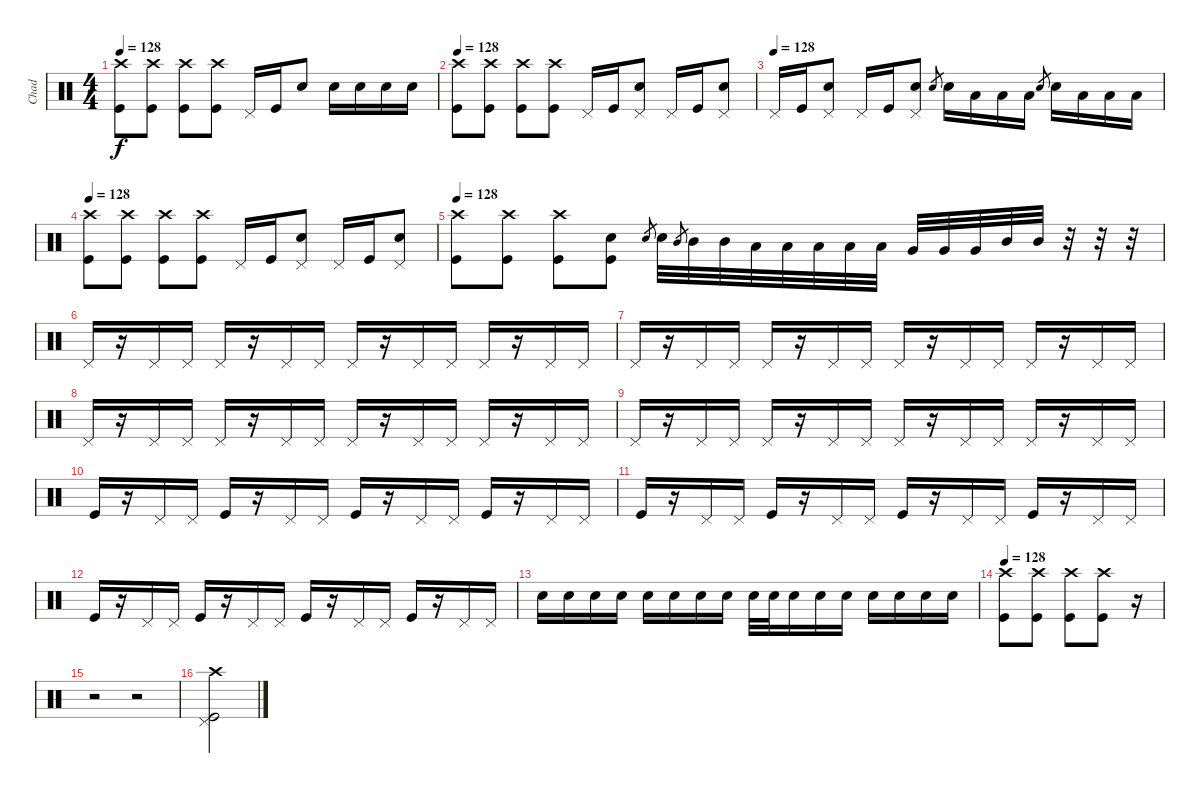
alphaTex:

\track ("Chad" "Chad") {instrument percussion}
\staff {score}
\articulation defaults
\ts (4 4)
\tempo 128
\clef neutral
\ks c
("Crash high (hit)" "Kick (hit)").8{dy f} ("Crash high (hit)" "Kick (hit)").8 ("Crash high (hit)" "Kick (hit)").8 ("Crash high (hit)" "Kick (hit)").8 "Pedal Hi-Hat (hit)".16 "Kick (hit)".16 "Electric Snare (hit)".8 "Electric Snare (hit)".16 "Electric Snare (hit)".16 "Electric Snare (hit)".16 "Electric Snare (hit)".16 |
\tempo 128
("Crash high (hit)" "Kick (hit)").8 ("Crash high (hit)" "Kick (hit)").8 ("Crash high (hit)" "Kick (hit)").8 ("Crash high (hit)" "Kick (hit)").8 "Pedal Hi-Hat (hit)".16 "Kick (hit)".16 ("Electric Snare (hit)" "Pedal Hi-Hat (hit)").8 "Pedal Hi-Hat (hit)".16 "Kick (hit)".16 ("Electric Snare (hit)" "Pedal Hi-Hat (hit)").8 |
\tempo (128)
"Pedal Hi-Hat (hit)".16 "Kick (hit)".16 ("Electric Snare (hit)" "Pedal Hi-Hat (hit)").8 "Pedal Hi-Hat (hit)".16 "Kick (hit)".16 ("Electric Snare (hit)" "Pedal Hi-Hat (hit)").8 "Electric Snare (hit)".8{gr} "Electric Snare (hit)".16 "Low Tom (hit)".16 "Low Tom (hit)".16 "Low Tom (hit)".16 "Electric Snare (hit)".8{gr} "Electric Snare (hit)".16 "Low Tom (hit)".16 "Low Tom (hit)".16 "Low Tom (hit)".16 |
\tempo 128
("Crash high (hit)" "Kick (hit)").8 ("Crash high (hit)" "Kick (hit)").8 ("Crash high (hit)" "Kick (hit)").8 ("Crash high (hit)" "Kick (hit)").8 "Pedal Hi-Hat (hit)".16 "Kick (hit)".16 ("Electric Snare (hit)" "Pedal Hi-Hat (hit)").8 "Pedal Hi-Hat (hit)".16 "Kick (hit)".16 ("Electric Snare (hit)" "Pedal Hi-Hat (hit)").8 |
\tempo 128
("Crash high (hit)" "Kick (hit)").8 ("Crash high (hit)" "Kick (hit)").8 ("Crash high (hit)" "Kick (hit)").8 ("Electric Snare (hit)" "Kick (hit)").8 "Electric Snare (hit)".8{gr} "Electric Snare (hit)".32 "Mid Tom (hit)".8{gr} "Mid Tom (hit)".32 "Mid Tom (hit)".32 "Low Tom (hit)".32 "Low Tom (hit)".32 "Low Tom (hit)".32 "Low Tom (hit)".32 "Low Tom (hit)".32 "Very Low Tom (hit)".32 "Very Low Tom (hit)".32 "Very Low Tom (hit)".32 "Mid Tom (hit)".32 "Mid Tom (hit)".32 r.32 r.32 r.32 |
"Pedal Hi-Hat (hit)".16 r.16 "Pedal Hi-Hat (hit)".16 "Pedal Hi-Hat (hit)".16 "Pedal Hi-Hat (hit)".16 r.16 "Pedal Hi-Hat (hit)".16 "Pedal Hi-Hat (hit)".16 "Pedal Hi-Hat (hit)".16 r.16 "Pedal Hi-Hat (hit)".16 "Pedal Hi-Hat (hit)".16 "Pedal Hi-Hat (hit)".16 r.16 "Pedal Hi-Hat (hit)".16 "Pedal Hi-Hat (hit)".16 |
"Pedal Hi-Hat (hit)".16 r.16 "Pedal Hi-Hat (hit)".16 "Pedal Hi-Hat (hit)".16 "Pedal Hi-Hat (hit)".16 r.16 "Pedal Hi-Hat (hit)".16 "Pedal Hi-Hat (hit)".16 "Pedal Hi-Hat (hit)".16 r.16 "Pedal Hi-Hat (hit)".16 "Pedal Hi-Hat (hit)".16 "Pedal Hi-Hat (hit)".16 r.16 "Pedal Hi-Hat (hit)".16 "Pedal Hi-Hat (hit)".16 |
"Pedal Hi-Hat (hit)".16 r.16 "Pedal Hi-Hat (hit)".16 "Pedal Hi-Hat (hit)".16 "Pedal Hi-Hat (hit)".16 r.16 "Pedal Hi-Hat (hit)".16 "Pedal Hi-Hat (hit)".16 "Pedal Hi-Hat (hit)".16 r.16 "Pedal Hi-Hat (hit)".16 "Pedal Hi-Hat (hit)".16 "Pedal Hi-Hat (hit)".16 r.16 "Pedal Hi-Hat (hit)".16 "Pedal Hi-Hat (hit)".16 |
"Pedal Hi-Hat (hit)".16 r.16 "Pedal Hi-Hat (hit)".16 "Pedal Hi-Hat (hit)".16 "Pedal Hi-Hat (hit)".16 r.16 "Pedal Hi-Hat (hit)".16 "Pedal Hi-Hat (hit)".16 "Pedal Hi-Hat (hit)".16 r.16 "Pedal Hi-Hat (hit)".16 "Pedal Hi-Hat (hit)".16 "Pedal Hi-Hat (hit)".16 r.16 "Pedal Hi-Hat (hit)".16 "Pedal Hi-Hat (hit)".16 |
"Kick (hit)".16 r.16 "Pedal Hi-Hat (hit)".16 "Pedal Hi-Hat (hit)".16 "Kick (hit)".16 r.16 "Pedal Hi-Hat (hit)".16 "Pedal Hi-Hat (hit)".16 "Kick (hit)".16 r.16 "Pedal Hi-Hat (hit)".16 "Pedal Hi-Hat (hit)".16 "Kick (hit)".16 r.16 "Pedal Hi-Hat (hit)".16 "Pedal Hi-Hat (hit)".16 |
"Kick (hit)".16 r.16 "Pedal Hi-Hat (hit)".16 "Pedal Hi-Hat (hit)".16 "Kick (hit)".16 r.16 "Pedal Hi-Hat (hit)".16 "Pedal Hi-Hat (hit)".16 "Kick (hit)".16 r.16 "Pedal Hi-Hat (hit)".16 "Pedal Hi-Hat (hit)".16 "Kick (hit)".16 r.16 "Pedal Hi-Hat (hit)".16 "Pedal Hi-Hat (hit)".16 |
"Kick (hit)".16 r.16 "Pedal Hi-Hat (hit)".16 "Pedal Hi-Hat (hit)".16 "Kick (hit)".16 r.16 "Pedal Hi-Hat (hit)".16 "Pedal Hi-Hat (hit)".16 "Kick (hit)".16 r.16 "Pedal Hi-Hat (hit)".16 "Pedal Hi-Hat (hit)".16 "Kick (hit)".16 r.16 "Pedal Hi-Hat (hit)".16 "Pedal Hi-Hat (hit)".16{volume 1} |
"Electric Snare (hit)".16{volume 16} "Electric Snare (hit)".16 "Electric Snare (hit)".16 "Electric Snare (hit)".16 "Electric Snare (hit)".16 "Electric Snare (hit)".16 "Electric Snare (hit)".16 "Electric Snare (hit)".16 "Electric Snare (hit)".32 "Electric Snare (hit)".32 "Electric Snare (hit)".16 "Electric Snare (hit)".16 "Electric Snare (hit)".16 "Electric Snare (hit)".16 "Electric Snare (hit)".16 "Electric Snare (hit)".16 "Electric Snare (hit)".16 |
\tempo 128
("Crash high (hit)" "Kick (hit)").8 ("Crash high (hit)" "Kick (hit)").8 ("Crash high (hit)" "Kick (hit)").8 ("Crash high (hit)" "Kick (hit)").8 r.16 |
r.2 r.2 |
("Pedal Hi-Hat (hit)" "Crash high (hit)" "Kick (hit)").2
